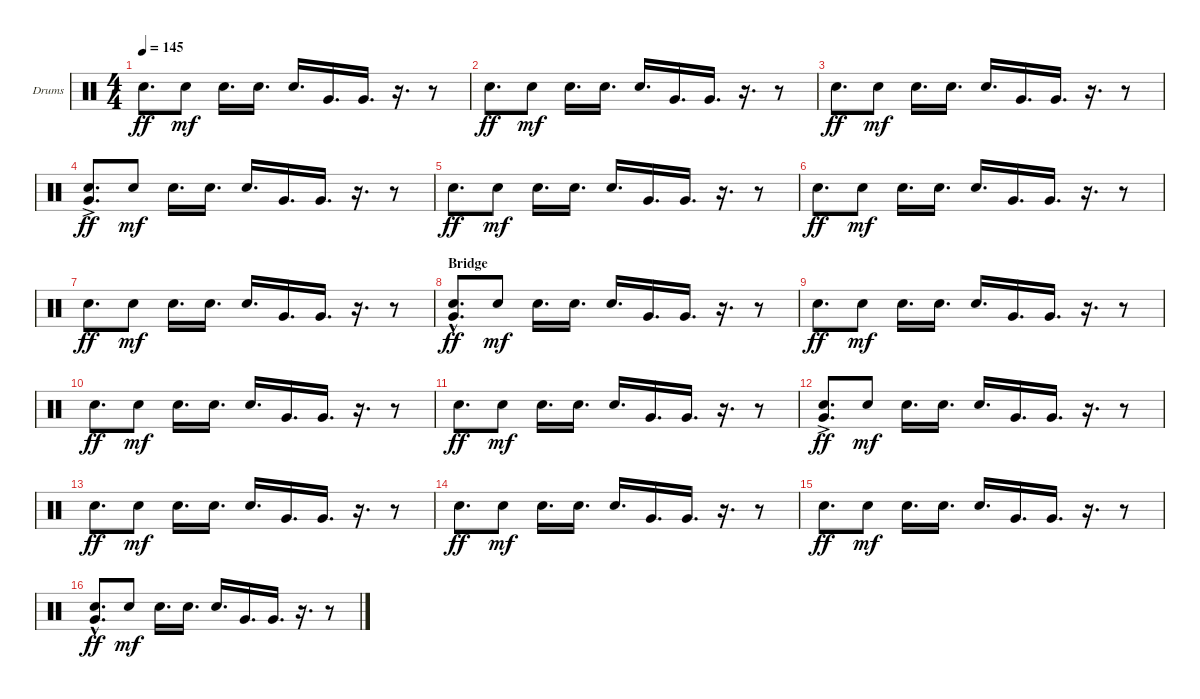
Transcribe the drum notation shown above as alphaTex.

\defaultSystemsLayout 4
\bracketExtendMode groupsimilarinstruments
\firstSystemTrackNameOrientation horizontal
\otherSystemsTrackNameOrientation horizontal
\track ("Drumkit" "Drums") {instrument percussion}
\staff {score}
\articulation defaults
\ts (4 4)
\tempo 145
\clef neutral
\ks c "Snare (hit) 2".8{d dy ff} "Snare (hit) 2".8{dy mf} "Snare (hit) 2".16{d} "Snare (hit) 2".16{d} "Snare (hit) 2".16{d} "Very Low Tom (hit)".16{d} "Very Low Tom (hit)".16{d}
r.16{d} r.8 |
"Snare (hit) 2".8{d dy ff} "Snare (hit) 2".8{dy mf} "Snare (hit) 2".16{d} "Snare (hit) 2".16{d} "Snare (hit) 2".16{d} "Very Low Tom (hit)".16{d} "Very Low Tom (hit)".16{d} r.16{d} r.8 |
"Snare (hit) 2".8{d dy ff} "Snare (hit) 2".8{dy mf} "Snare (hit) 2".16{d} "Snare (hit) 2".16{d} "Snare (hit) 2".16{d} "Very Low Tom (hit)".16{d} "Very Low Tom (hit)".16{d} r.16{d} r.8 |
("Snare (hit) 2" "Very Low Tom (hit)"{ac}).8{d dy ff} "Snare (hit) 2".8{dy mf} "Snare (hit) 2".16{d} "Snare (hit) 2".16{d} "Snare (hit) 2".16{d} "Very Low Tom (hit)".16{d} "Very Low Tom (hit)".16{d} r.16{d} r.8 |
"Snare (hit) 2".8{d dy ff} "Snare (hit) 2".8{dy mf} "Snare (hit) 2".16{d} "Snare (hit) 2".16{d} "Snare (hit) 2".16{d} "Very Low Tom (hit)".16{d} "Very Low Tom (hit)".16{d} r.16{d} r.8 |
"Snare (hit) 2".8{d dy ff} "Snare (hit) 2".8{dy mf} "Snare (hit) 2".16{d} "Snare (hit) 2".16{d} "Snare (hit) 2".16{d} "Very Low Tom (hit)".16{d} "Very Low Tom (hit)".16{d} r.16{d} r.8 |
"Snare (hit) 2".8{d dy ff} "Snare (hit) 2".8{dy mf} "Snare (hit) 2".16{d} "Snare (hit) 2".16{d} "Snare (hit) 2".16{d} "Very Low Tom (hit)".16{d} "Very Low Tom (hit)".16{d} r.16{d} r.8 |
\section ("" "Bridge")
("Snare (hit) 2" "Very Low Tom (hit)"{hac}).8{d dy ff} "Snare (hit) 2".8{dy mf} "Snare (hit) 2".16{d} "Snare (hit) 2".16{d} "Snare (hit) 2".16{d} "Very Low Tom (hit)".16{d} "Very Low Tom (hit)".16{d} r.16{d} r.8 |
"Snare (hit) 2".8{d dy ff} "Snare (hit) 2".8{dy mf} "Snare (hit) 2".16{d} "Snare (hit) 2".16{d} "Snare (hit) 2".16{d} "Very Low Tom (hit)".16{d} "Very Low Tom (hit)".16{d} r.16{d} r.8 |
"Snare (hit) 2".8{d dy ff} "Snare (hit) 2".8{dy mf} "Snare (hit) 2".16{d} "Snare (hit) 2".16{d} "Snare (hit) 2".16{d} "Very Low Tom (hit)".16{d} "Very Low Tom (hit)".16{d} r.16{d} r.8 |
"Snare (hit) 2".8{d dy ff} "Snare (hit) 2".8{dy mf} "Snare (hit) 2".16{d} "Snare (hit) 2".16{d} "Snare (hit) 2".16{d} "Very Low Tom (hit)".16{d} "Very Low Tom (hit)".16{d} r.16{d} r.8 |
("Snare (hit) 2" "Very Low Tom (hit)"{ac}).8{d dy ff} "Snare (hit) 2".8{dy mf} "Snare (hit) 2".16{d} "Snare (hit) 2".16{d} "Snare (hit) 2".16{d} "Very Low Tom (hit)".16{d} "Very Low Tom (hit)".16{d} r.16{d} r.8 |
"Snare (hit) 2".8{d dy ff} "Snare (hit) 2".8{dy mf} "Snare (hit) 2".16{d} "Snare (hit) 2".16{d} "Snare (hit) 2".16{d} "Very Low Tom (hit)".16{d} "Very Low Tom (hit)".16{d} r.16{d} r.8 |
"Snare (hit) 2".8{d dy ff} "Snare (hit) 2".8{dy mf} "Snare (hit) 2".16{d} "Snare (hit) 2".16{d} "Snare (hit) 2".16{d} "Very Low Tom (hit)".16{d} "Very Low Tom (hit)".16{d} r.16{d} r.8 |
"Snare (hit) 2".8{d dy ff} "Snare (hit) 2".8{dy mf} "Snare (hit) 2".16{d} "Snare (hit) 2".16{d} "Snare (hit) 2".16{d} "Very Low Tom (hit)".16{d} "Very Low Tom (hit)".16{d} r.16{d} r.8 |
("Snare (hit) 2" "Very Low Tom (hit)"{hac}).8{d dy ff} "Snare (hit) 2".8{dy mf} "Snare (hit) 2".16{d} "Snare (hit) 2".16{d} "Snare (hit) 2".16{d} "Very Low Tom (hit)".16{d} "Very Low Tom (hit)".16{d} r.16{d} r.8
